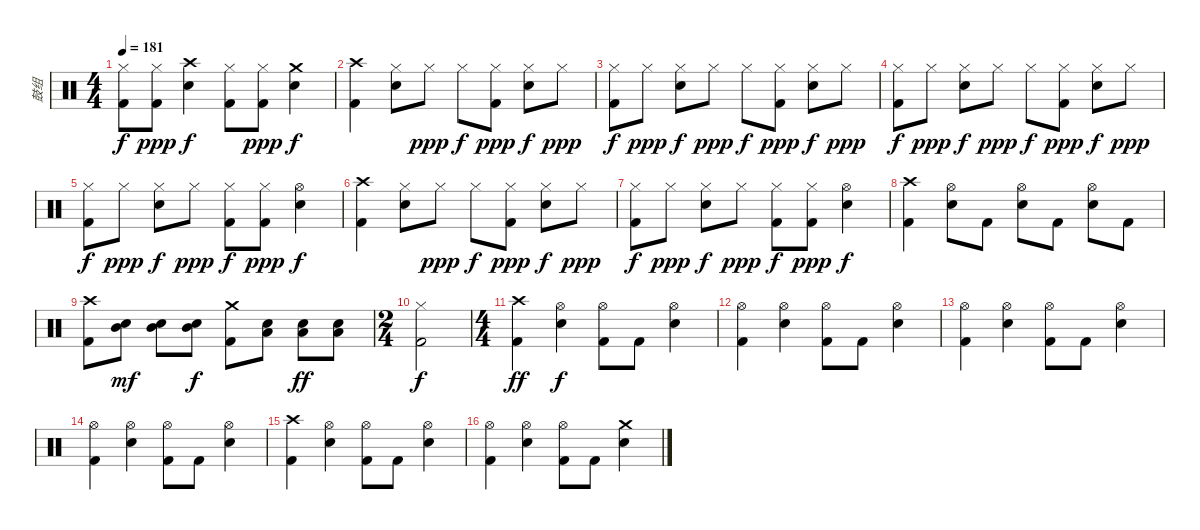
\track ("鼓组" "鼓组") {instrument percussion}
\staff {score}
\articulation defaults
\ts (4 4)
\tempo 181
\clef neutral
\ks c
("Hi-Hat (closed)" "Kick (hit) 2").8{dy f} ("Hi-Hat (closed)" "Kick (hit) 2").8{dy ppp} ("Crash high (hit)" "Snare (hit) 2").4{dy f} ("Hi-Hat (closed)" "Kick (hit) 2").8 ("Hi-Hat (closed)" "Kick (hit) 2").8{dy ppp} ("Crash medium (hit)" "Snare (hit) 2").4{dy f} |
("Crash high (hit)" "Kick (hit) 2").4 ("Hi-Hat (closed)" "Snare (hit) 2").8 "Hi-Hat (closed)".8{dy ppp} "Hi-Hat (closed)".8{dy f} ("Hi-Hat (closed)" "Kick (hit) 2").8{dy ppp} ("Hi-Hat (closed)" "Snare (hit) 2").8{dy f} "Hi-Hat (closed)".8{dy ppp} |
("Hi-Hat (closed)" "Kick (hit) 2").8{dy f} "Hi-Hat (closed)".8{dy ppp} ("Hi-Hat (closed)" "Snare (hit) 2").8{dy f} "Hi-Hat (closed)".8{dy ppp} "Hi-Hat (closed)".8{dy f} ("Hi-Hat (closed)" "Kick (hit) 2").8{dy ppp} ("Hi-Hat (closed)" "Snare (hit) 2").8{dy f} "Hi-Hat (closed)".8{dy ppp} |
("Hi-Hat (closed)" "Kick (hit) 2").8{dy f} "Hi-Hat (closed)".8{dy ppp} ("Hi-Hat (closed)" "Snare (hit) 2").8{dy f} "Hi-Hat (closed)".8{dy ppp} "Hi-Hat (closed)".8{dy f} ("Hi-Hat (closed)" "Kick (hit) 2").8{dy ppp} ("Hi-Hat (closed)" "Snare (hit) 2").8{dy f} "Hi-Hat (closed)".8{dy ppp} |
("Hi-Hat (closed)" "Kick (hit) 2").8{dy f} "Hi-Hat (closed)".8{dy ppp} ("Hi-Hat (closed)" "Snare (hit) 2").8{dy f} "Hi-Hat (closed)".8{dy ppp} ("Hi-Hat (closed)" "Kick (hit) 2").8{dy f} ("Hi-Hat (closed)" "Kick (hit) 2").8{dy ppp} ("Hi-Hat (open)" "Snare (hit) 2").4{dy f} |
("Crash high (hit)" "Kick (hit) 2").4 ("Hi-Hat (closed)" "Snare (hit) 2").8 "Hi-Hat (closed)".8{dy ppp} "Hi-Hat (closed)".8{dy f} ("Hi-Hat (closed)" "Kick (hit) 2").8{dy ppp} ("Hi-Hat (closed)" "Snare (hit) 2").8{dy f} "Hi-Hat (closed)".8{dy ppp} |
("Hi-Hat (closed)" "Kick (hit) 2").8{dy f} "Hi-Hat (closed)".8{dy ppp} ("Hi-Hat (closed)" "Snare (hit) 2").8{dy f} "Hi-Hat (closed)".8{dy ppp} ("Hi-Hat (closed)" "Kick (hit) 2").8{dy f} ("Hi-Hat (closed)" "Kick (hit) 2").8{dy ppp} ("Hi-Hat (open)" "Snare (hit) 2").4{dy f} |
("Crash high (hit)" "Kick (hit) 2").4 ("Hi-Hat (open)" "Snare (hit) 2").8 "Kick (hit) 2".8 ("Hi-Hat (open)" "Snare (hit) 2").8 "Kick (hit) 2".8 ("Hi-Hat (open)" "Snare (hit) 2").8 "Kick (hit) 2".8 |
("Crash high (hit)" "Kick (hit) 2").8 ("Mid Tom (hit)" "Snare (hit) 2").8{dy mf} ("Mid Tom (hit)" "Snare (hit) 2").8 ("Mid Tom (hit)" "Snare (hit) 2").8{dy f} ("Crash medium (hit)" "Kick (hit) 2").8 ("Low Tom (hit)" "Snare (hit) 2").8 ("Low Tom (hit)" "Snare (hit) 2").8{dy ff} ("Low Tom (hit)" "Snare (hit) 2").8 |
\ts (2 4)
("Hi-Hat (closed)" "Kick (hit) 2").2{dy f} |
\ts (4 4)
("Crash high (hit)" "Kick (hit) 2").4{dy ff} ("Hi-Hat (open)" "Snare (hit) 2").4{dy f} ("Hi-Hat (open)" "Kick (hit) 2").8 "Kick (hit) 2".8 ("Hi-Hat (open)" "Snare (hit) 2").4 |
("Hi-Hat (open)" "Kick (hit) 2").4 ("Hi-Hat (open)" "Snare (hit) 2").4 ("Hi-Hat (open)" "Kick (hit) 2").8 "Kick (hit) 2".8 ("Hi-Hat (open)" "Snare (hit) 2").4 |
("Hi-Hat (open)" "Kick (hit) 2").4 ("Hi-Hat (open)" "Snare (hit) 2").4 ("Hi-Hat (open)" "Kick (hit) 2").8 "Kick (hit) 2".8 ("Hi-Hat (open)" "Snare (hit) 2").4 |
("Hi-Hat (open)" "Kick (hit) 2").4 ("Hi-Hat (open)" "Snare (hit) 2").4 ("Hi-Hat (open)" "Kick (hit) 2").8 "Kick (hit) 2".8 ("Hi-Hat (open)" "Snare (hit) 2").4 |
("Crash high (hit)" "Kick (hit) 2").4 ("Hi-Hat (open)" "Snare (hit) 2").4 ("Hi-Hat (open)" "Kick (hit) 2").8 "Kick (hit) 2".8 ("Hi-Hat (open)" "Snare (hit) 2").4 |
("Hi-Hat (open)" "Kick (hit) 2").4 ("Hi-Hat (open)" "Snare (hit) 2").4 ("Hi-Hat (open)" "Kick (hit) 2").8 "Kick (hit) 2".8 ("Crash medium (hit)" "Snare (hit) 2").4
